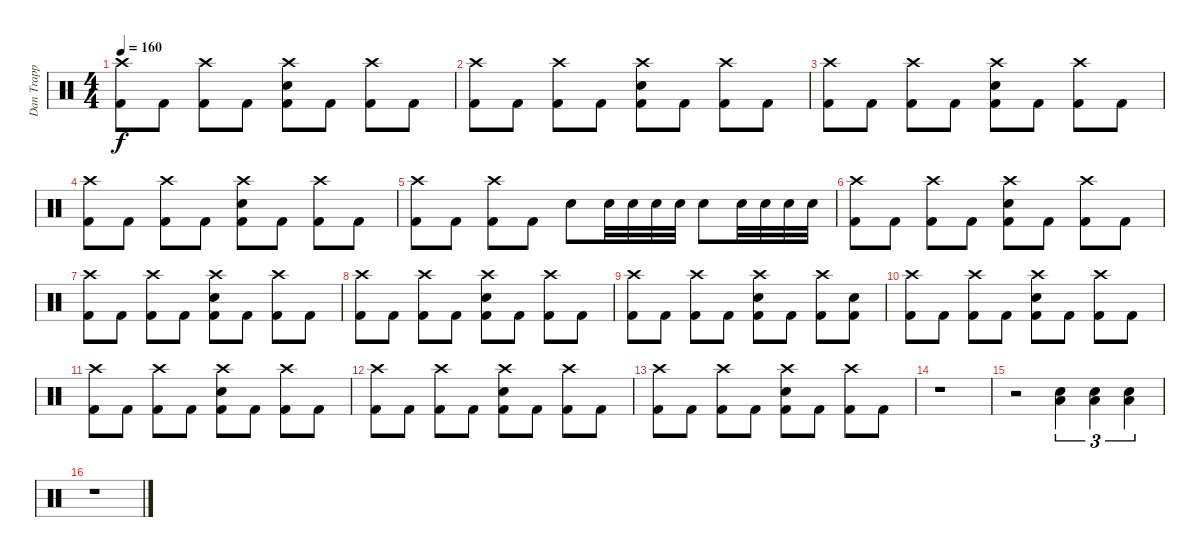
\track ("Dan Trapp" "Dan Trapp") {instrument percussion}
\staff {score}
\articulation defaults
\ts (4 4)
\tempo 160
\clef neutral
\ks c
("Crash high (hit)" "Kick (hit) 2").8{dy f} "Kick (hit) 2".8 ("Crash high (hit)" "Kick (hit) 2").8 "Kick (hit) 2".8 ("Crash high (hit)" "Snare (hit) 2" "Kick (hit) 2").8 "Kick (hit) 2".8 ("Crash high (hit)" "Kick (hit) 2").8 "Kick (hit) 2".8 |
("Crash high (hit)" "Kick (hit) 2").8 "Kick (hit) 2".8 ("Crash high (hit)" "Kick (hit) 2").8 "Kick (hit) 2".8 ("Crash high (hit)" "Snare (hit) 2" "Kick (hit) 2").8 "Kick (hit) 2".8 ("Crash high (hit)" "Kick (hit) 2").8 "Kick (hit) 2".8 |
("Crash high (hit)" "Kick (hit) 2").8 "Kick (hit) 2".8 ("Crash high (hit)" "Kick (hit) 2").8 "Kick (hit) 2".8 ("Crash high (hit)" "Snare (hit) 2" "Kick (hit) 2").8 "Kick (hit) 2".8 ("Crash high (hit)" "Kick (hit) 2").8 "Kick (hit) 2".8 |
("Crash high (hit)" "Kick (hit) 2").8 "Kick (hit) 2".8 ("Crash high (hit)" "Kick (hit) 2").8 "Kick (hit) 2".8 ("Crash high (hit)" "Snare (hit) 2" "Kick (hit) 2").8 "Kick (hit) 2".8 ("Crash high (hit)" "Kick (hit) 2").8 "Kick (hit) 2".8 |
("Crash high (hit)" "Kick (hit) 2").8 "Kick (hit) 2".8 ("Crash high (hit)" "Kick (hit) 2").8 "Kick (hit) 2".8 "Snare (hit) 2".8 "Snare (hit) 2".32 "Snare (hit) 2".32 "Snare (hit) 2".32 "Snare (hit) 2".32 "Snare (hit) 2".8 "Snare (hit) 2".32 "Snare (hit) 2".32 "Snare (hit) 2".32 "Snare (hit) 2".32 |
("Crash high (hit)" "Kick (hit) 2").8 "Kick (hit) 2".8 ("Crash high (hit)" "Kick (hit) 2").8 "Kick (hit) 2".8 ("Crash high (hit)" "Snare (hit) 2" "Kick (hit) 2").8 "Kick (hit) 2".8 ("Crash high (hit)" "Kick (hit) 2").8 "Kick (hit) 2".8 |
("Crash high (hit)" "Kick (hit) 2").8 "Kick (hit) 2".8 ("Crash high (hit)" "Kick (hit) 2").8 "Kick (hit) 2".8 ("Crash high (hit)" "Snare (hit) 2" "Kick (hit) 2").8 "Kick (hit) 2".8 ("Crash high (hit)" "Kick (hit) 2").8 "Kick (hit) 2".8 |
("Crash high (hit)" "Kick (hit) 2").8 "Kick (hit) 2".8 ("Crash high (hit)" "Kick (hit) 2").8 "Kick (hit) 2".8 ("Crash high (hit)" "Snare (hit) 2" "Kick (hit) 2").8 "Kick (hit) 2".8 ("Crash high (hit)" "Kick (hit) 2").8 "Kick (hit) 2".8 |
("Crash high (hit)" "Kick (hit) 2").8 "Kick (hit) 2".8 ("Crash high (hit)" "Kick (hit) 2").8 "Kick (hit) 2".8 ("Crash high (hit)" "Snare (hit) 2" "Kick (hit) 2").8 "Kick (hit) 2".8 ("Crash high (hit)" "Kick (hit) 2").8 ("Snare (hit) 2" "Kick (hit) 2").8 |
("Crash high (hit)" "Kick (hit) 2").8 "Kick (hit) 2".8 ("Crash high (hit)" "Kick (hit) 2").8 "Kick (hit) 2".8 ("Crash high (hit)" "Snare (hit) 2" "Kick (hit) 2").8 "Kick (hit) 2".8 ("Crash high (hit)" "Kick (hit) 2").8 "Kick (hit) 2".8 |
("Crash high (hit)" "Kick (hit) 2").8 "Kick (hit) 2".8 ("Crash high (hit)" "Kick (hit) 2").8 "Kick (hit) 2".8 ("Crash high (hit)" "Snare (hit) 2" "Kick (hit) 2").8 "Kick (hit) 2".8 ("Crash high (hit)" "Kick (hit) 2").8 "Kick (hit) 2".8 |
("Crash high (hit)" "Kick (hit) 2").8 "Kick (hit) 2".8 ("Crash high (hit)" "Kick (hit) 2").8 "Kick (hit) 2".8 ("Crash high (hit)" "Snare (hit) 2" "Kick (hit) 2").8 "Kick (hit) 2".8 ("Crash high (hit)" "Kick (hit) 2").8 "Kick (hit) 2".8 |
("Crash high (hit)" "Kick (hit) 2").8 "Kick (hit) 2".8 ("Crash high (hit)" "Kick (hit) 2").8 "Kick (hit) 2".8 ("Crash high (hit)" "Snare (hit) 2" "Kick (hit) 2").8 "Kick (hit) 2".8 ("Crash high (hit)" "Kick (hit) 2").8 "Kick (hit) 2".8 |
r.1 |
r.2 ("Snare (hit) 2" "Low Floor Tom (hit)").4{tu (3 2)} ("Snare (hit) 2" "Low Floor Tom (hit)").4{tu (3 2)} ("Snare (hit) 2" "Low Floor Tom (hit)").4{tu (3 2)} |
r.1
